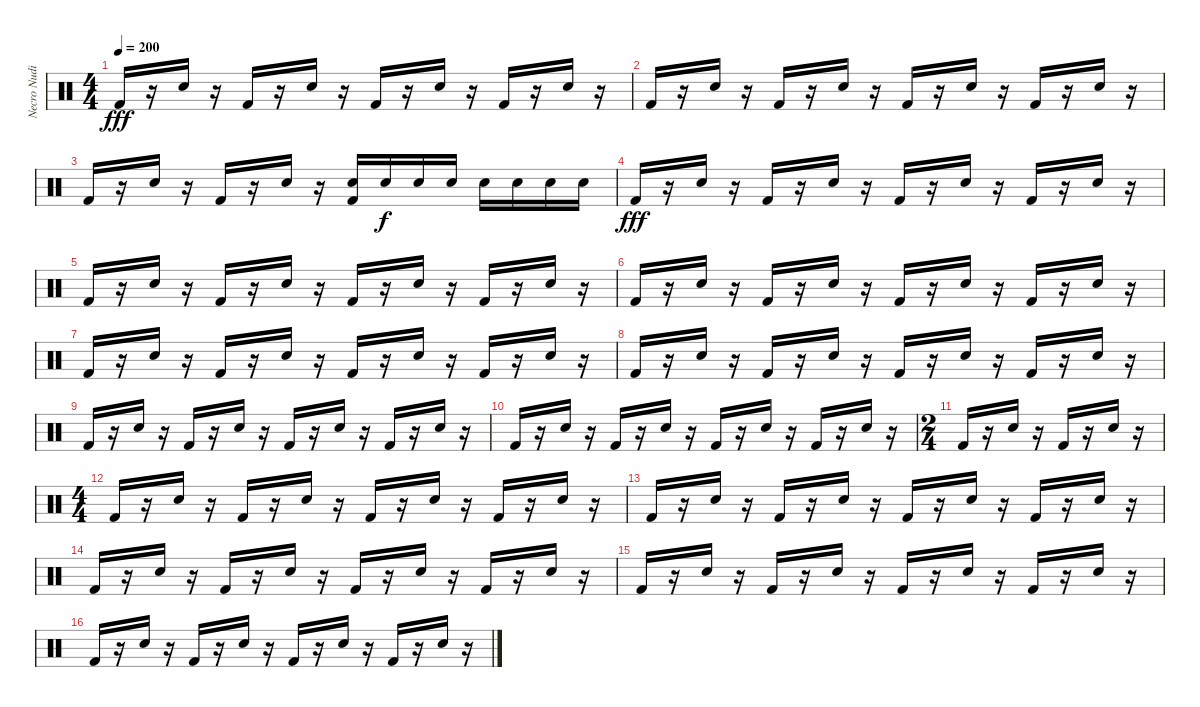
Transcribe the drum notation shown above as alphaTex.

\track ("Necro Nudist" "Necro Nudi") {instrument percussion}
\staff {score}
\articulation defaults
\ts (4 4)
\tempo 200
\clef neutral
\ks c "Kick (hit) 2".16{dy fff}
r.16 "Snare (hit) 2".16 r.16 "Kick (hit) 2".16 r.16 "Snare (hit) 2".16 r.16 "Kick (hit) 2".16 r.16 "Snare (hit) 2".16 r.16 "Kick (hit) 2".16 r.16 "Snare (hit) 2".16 r.16 |
"Kick (hit) 2".16 r.16 "Snare (hit) 2".16 r.16 "Kick (hit) 2".16 r.16 "Snare (hit) 2".16 r.16 "Kick (hit) 2".16 r.16 "Snare (hit) 2".16 r.16 "Kick (hit) 2".16 r.16 "Snare (hit) 2".16 r.16 |
"Kick (hit) 2".16 r.16 "Snare (hit) 2".16 r.16 "Kick (hit) 2".16 r.16 "Snare (hit) 2".16 r.16 ("Snare (hit) 2" "Kick (hit) 2").16 "Snare (hit) 2".16{dy f} "Snare (hit) 2".16 "Snare (hit) 2".16 "Snare (hit) 2".16 "Snare (hit) 2".16 "Snare (hit) 2".16 "Snare (hit) 2".16 |
"Kick (hit) 2".16{dy fff} r.16 "Snare (hit) 2".16 r.16 "Kick (hit) 2".16 r.16 "Snare (hit) 2".16 r.16 "Kick (hit) 2".16 r.16 "Snare (hit) 2".16 r.16 "Kick (hit) 2".16 r.16 "Snare (hit) 2".16 r.16 |
"Kick (hit) 2".16 r.16 "Snare (hit) 2".16 r.16 "Kick (hit) 2".16 r.16 "Snare (hit) 2".16 r.16 "Kick (hit) 2".16 r.16 "Snare (hit) 2".16 r.16 "Kick (hit) 2".16 r.16 "Snare (hit) 2".16 r.16 |
"Kick (hit) 2".16 r.16 "Snare (hit) 2".16 r.16 "Kick (hit) 2".16 r.16 "Snare (hit) 2".16 r.16 "Kick (hit) 2".16 r.16 "Snare (hit) 2".16 r.16 "Kick (hit) 2".16 r.16 "Snare (hit) 2".16 r.16 |
"Kick (hit) 2".16 r.16 "Snare (hit) 2".16 r.16 "Kick (hit) 2".16 r.16 "Snare (hit) 2".16 r.16 "Kick (hit) 2".16 r.16 "Snare (hit) 2".16 r.16 "Kick (hit) 2".16 r.16 "Snare (hit) 2".16 r.16 |
"Kick (hit) 2".16 r.16 "Snare (hit) 2".16 r.16 "Kick (hit) 2".16 r.16 "Snare (hit) 2".16 r.16 "Kick (hit) 2".16 r.16 "Snare (hit) 2".16 r.16 "Kick (hit) 2".16 r.16 "Snare (hit) 2".16 r.16 |
"Kick (hit) 2".16 r.16 "Snare (hit) 2".16 r.16 "Kick (hit) 2".16 r.16 "Snare (hit) 2".16 r.16 "Kick (hit) 2".16 r.16 "Snare (hit) 2".16 r.16 "Kick (hit) 2".16 r.16 "Snare (hit) 2".16 r.16 |
"Kick (hit) 2".16 r.16 "Snare (hit) 2".16 r.16 "Kick (hit) 2".16 r.16 "Snare (hit) 2".16 r.16 "Kick (hit) 2".16 r.16 "Snare (hit) 2".16 r.16 "Kick (hit) 2".16 r.16 "Snare (hit) 2".16 r.16 |
\ts (2 4)
"Kick (hit) 2".16 r.16 "Snare (hit) 2".16 r.16 "Kick (hit) 2".16 r.16 "Snare (hit) 2".16 r.16 |
\ts (4 4)
"Kick (hit) 2".16 r.16 "Snare (hit) 2".16 r.16 "Kick (hit) 2".16 r.16 "Snare (hit) 2".16 r.16 "Kick (hit) 2".16 r.16 "Snare (hit) 2".16 r.16 "Kick (hit) 2".16 r.16 "Snare (hit) 2".16 r.16 |
"Kick (hit) 2".16 r.16 "Snare (hit) 2".16 r.16 "Kick (hit) 2".16 r.16 "Snare (hit) 2".16 r.16 "Kick (hit) 2".16 r.16 "Snare (hit) 2".16 r.16 "Kick (hit) 2".16 r.16 "Snare (hit) 2".16 r.16 |
"Kick (hit) 2".16 r.16 "Snare (hit) 2".16 r.16 "Kick (hit) 2".16 r.16 "Snare (hit) 2".16 r.16 "Kick (hit) 2".16 r.16 "Snare (hit) 2".16 r.16 "Kick (hit) 2".16 r.16 "Snare (hit) 2".16 r.16 |
"Kick (hit) 2".16 r.16 "Snare (hit) 2".16 r.16 "Kick (hit) 2".16 r.16 "Snare (hit) 2".16 r.16 "Kick (hit) 2".16 r.16 "Snare (hit) 2".16 r.16 "Kick (hit) 2".16 r.16 "Snare (hit) 2".16 r.16 |
"Kick (hit) 2".16 r.16 "Snare (hit) 2".16 r.16 "Kick (hit) 2".16 r.16 "Snare (hit) 2".16 r.16 "Kick (hit) 2".16 r.16 "Snare (hit) 2".16 r.16 "Kick (hit) 2".16 r.16 "Snare (hit) 2".16 r.16
